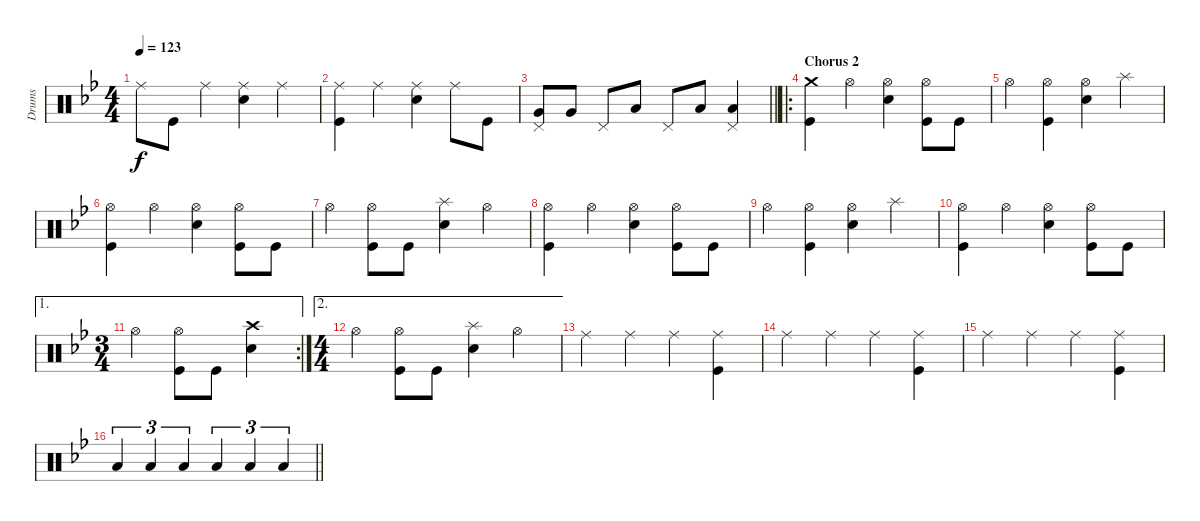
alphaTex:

\track ("Drums" "Drums") {instrument percussion}
\staff {score}
\articulation defaults
\ts (4 4)
\tempo 123
\clef neutral
\ks bb "Ride (middle)".8{dy f} "Kick (hit)".8 "Ride (middle)".4
("Ride (middle)" "Snare (hit) 2").4 "Ride (middle)".4 |
("Ride (middle)" "Kick (hit)").4 "Ride (middle)".4 ("Ride (middle)" "Snare (hit) 2").4 "Ride (middle)".8 "Kick (hit)".8 |
\barLineRight lightlight
("Pedal Hi-Hat (hit)" "Very Low Tom (hit)").8 "Very Low Tom (hit)".8 "Pedal Hi-Hat (hit)".8 "Low Tom (hit)".8 "Pedal Hi-Hat (hit)".8 "Low Floor Tom (hit)".8 ("Pedal Hi-Hat (hit)" "Low Floor Tom (hit)").4 |
\ro
\section ("" "Chorus 2")
("Crash medium (hit)" "Kick (hit)").4 "Hi-Hat (open)".4 ("Hi-Hat (open)" "Snare (hit) 2").4 ("Hi-Hat (open)" "Kick (hit)").8 "Kick (hit)".8 |
"Hi-Hat (open)".4 ("Hi-Hat (open)" "Kick (hit)").4 ("Hi-Hat (open)" "Snare (hit) 2").4 "Splash (hit)".4 |
("Hi-Hat (open)" "Kick (hit)").4 "Hi-Hat (open)".4 ("Hi-Hat (open)" "Snare (hit) 2").4 ("Hi-Hat (open)" "Kick (hit)").8 "Kick (hit)".8 |
"Hi-Hat (open)".4 ("Hi-Hat (open)" "Kick (hit)").8 "Kick (hit)".8 ("Splash (hit)" "Snare (hit) 2").4 "Hi-Hat (open)".4 |
("Hi-Hat (open)" "Kick (hit)").4 "Hi-Hat (open)".4 ("Hi-Hat (open)" "Snare (hit) 2").4 ("Hi-Hat (open)" "Kick (hit)").8 "Kick (hit)".8 |
"Hi-Hat (open)".4 ("Hi-Hat (open)" "Kick (hit)").4 ("Hi-Hat (open)" "Snare (hit) 2").4 "Splash (hit)".4 |
("Hi-Hat (open)" "Kick (hit)").4 "Hi-Hat (open)".4 ("Hi-Hat (open)" "Snare (hit) 2").4 ("Hi-Hat (open)" "Kick (hit)").8 "Kick (hit)".8 |
\ae 1
\rc 2
\ts (3 4)
"Hi-Hat (open)".4 ("Hi-Hat (open)" "Kick (hit)").8 "Kick (hit)".8 ("Crash high (hit)" "Snare (hit) 2").4 |
\ae 2
\ts (4 4)
"Hi-Hat (open)".4 ("Hi-Hat (open)" "Kick (hit)").8 "Kick (hit)".8 ("Splash (hit)" "Snare (hit) 2").4 "Hi-Hat (open)".4 |
"Ride (middle)".4 "Ride (middle)".4 "Ride (middle)".4 ("Ride (middle)" "Kick (hit)").4 |
"Ride (middle)".4 "Ride (middle)".4 "Ride (middle)".4 ("Ride (middle)" "Kick (hit)").4 |
"Ride (middle)".4 "Ride (middle)".4 "Ride (middle)".4 ("Ride (middle)" "Kick (hit)").4 |
\barLineRight lightlight "Low Tom (hit)".4{tu (3 2)} "Low Tom (hit)".4{tu (3 2)} "Low Tom (hit)".4{tu (3 2)} "Low Floor Tom (hit)".4{tu (3 2)} "Low Floor Tom (hit)".4{tu (3 2)} "Low Floor Tom (hit)".4{tu (3 2)}
